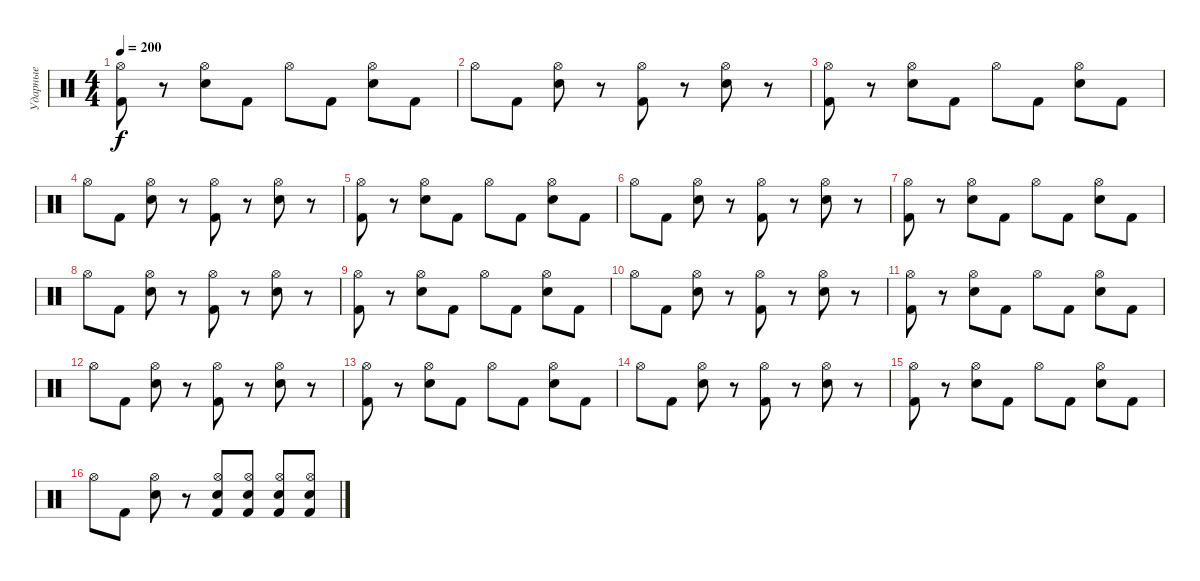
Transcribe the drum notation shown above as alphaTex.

\track ("Ударные" "Ударные") {instrument percussion}
\staff {score}
\articulation defaults
\ts (4 4)
\tempo 200
\clef neutral
\ks c
("Kick (hit) 2" "Hi-Hat (open)").8{dy f} r.8 ("Electric Snare (hit)" "Hi-Hat (open)").8 "Kick (hit) 2".8 "Hi-Hat (open)".8 "Kick (hit) 2".8 ("Electric Snare (hit)" "Hi-Hat (open)").8 "Kick (hit) 2".8 |
"Hi-Hat (open)".8 "Kick (hit) 2".8 ("Electric Snare (hit)" "Hi-Hat (open)").8 r.8 ("Kick (hit) 2" "Hi-Hat (open)").8 r.8 ("Electric Snare (hit)" "Hi-Hat (open)").8 r.8 |
("Kick (hit) 2" "Hi-Hat (open)").8 r.8 ("Electric Snare (hit)" "Hi-Hat (open)").8 "Kick (hit) 2".8 "Hi-Hat (open)".8 "Kick (hit) 2".8 ("Electric Snare (hit)" "Hi-Hat (open)").8 "Kick (hit) 2".8 |
"Hi-Hat (open)".8 "Kick (hit) 2".8 ("Electric Snare (hit)" "Hi-Hat (open)").8 r.8 ("Kick (hit) 2" "Hi-Hat (open)").8 r.8 ("Electric Snare (hit)" "Hi-Hat (open)").8 r.8 |
("Kick (hit) 2" "Hi-Hat (open)").8 r.8 ("Electric Snare (hit)" "Hi-Hat (open)").8 "Kick (hit) 2".8 "Hi-Hat (open)".8 "Kick (hit) 2".8 ("Electric Snare (hit)" "Hi-Hat (open)").8 "Kick (hit) 2".8 |
"Hi-Hat (open)".8 "Kick (hit) 2".8 ("Electric Snare (hit)" "Hi-Hat (open)").8 r.8 ("Kick (hit) 2" "Hi-Hat (open)").8 r.8 ("Electric Snare (hit)" "Hi-Hat (open)").8 r.8 |
("Kick (hit) 2" "Hi-Hat (open)").8 r.8 ("Electric Snare (hit)" "Hi-Hat (open)").8 "Kick (hit) 2".8 "Hi-Hat (open)".8 "Kick (hit) 2".8 ("Electric Snare (hit)" "Hi-Hat (open)").8 "Kick (hit) 2".8 |
"Hi-Hat (open)".8 "Kick (hit) 2".8 ("Electric Snare (hit)" "Hi-Hat (open)").8 r.8 ("Kick (hit) 2" "Hi-Hat (open)").8 r.8 ("Electric Snare (hit)" "Hi-Hat (open)").8 r.8 |
("Kick (hit) 2" "Hi-Hat (open)").8 r.8 ("Electric Snare (hit)" "Hi-Hat (open)").8 "Kick (hit) 2".8 "Hi-Hat (open)".8 "Kick (hit) 2".8 ("Electric Snare (hit)" "Hi-Hat (open)").8 "Kick (hit) 2".8 |
"Hi-Hat (open)".8 "Kick (hit) 2".8 ("Electric Snare (hit)" "Hi-Hat (open)").8 r.8 ("Kick (hit) 2" "Hi-Hat (open)").8 r.8 ("Electric Snare (hit)" "Hi-Hat (open)").8 r.8 |
("Kick (hit) 2" "Hi-Hat (open)").8 r.8 ("Electric Snare (hit)" "Hi-Hat (open)").8 "Kick (hit) 2".8 "Hi-Hat (open)".8 "Kick (hit) 2".8 ("Electric Snare (hit)" "Hi-Hat (open)").8 "Kick (hit) 2".8 |
"Hi-Hat (open)".8 "Kick (hit) 2".8 ("Electric Snare (hit)" "Hi-Hat (open)").8 r.8 ("Kick (hit) 2" "Hi-Hat (open)").8 r.8 ("Electric Snare (hit)" "Hi-Hat (open)").8 r.8 |
("Kick (hit) 2" "Hi-Hat (open)").8 r.8 ("Electric Snare (hit)" "Hi-Hat (open)").8 "Kick (hit) 2".8 "Hi-Hat (open)".8 "Kick (hit) 2".8 ("Electric Snare (hit)" "Hi-Hat (open)").8 "Kick (hit) 2".8 |
"Hi-Hat (open)".8 "Kick (hit) 2".8 ("Electric Snare (hit)" "Hi-Hat (open)").8 r.8 ("Kick (hit) 2" "Hi-Hat (open)").8 r.8 ("Electric Snare (hit)" "Hi-Hat (open)").8 r.8 |
("Kick (hit) 2" "Hi-Hat (open)").8 r.8 ("Electric Snare (hit)" "Hi-Hat (open)").8 "Kick (hit) 2".8 "Hi-Hat (open)".8 "Kick (hit) 2".8 ("Electric Snare (hit)" "Hi-Hat (open)").8 "Kick (hit) 2".8 |
"Hi-Hat (open)".8 "Kick (hit) 2".8 ("Electric Snare (hit)" "Hi-Hat (open)").8 r.8 ("Kick (hit) 2" "Electric Snare (hit)" "Hi-Hat (open)").8 ("Hi-Hat (open)" "Kick (hit) 2" "Electric Snare (hit)").8 ("Electric Snare (hit)" "Kick (hit) 2" "Hi-Hat (open)").8 ("Hi-Hat (open)" "Kick (hit) 2" "Electric Snare (hit)").8
